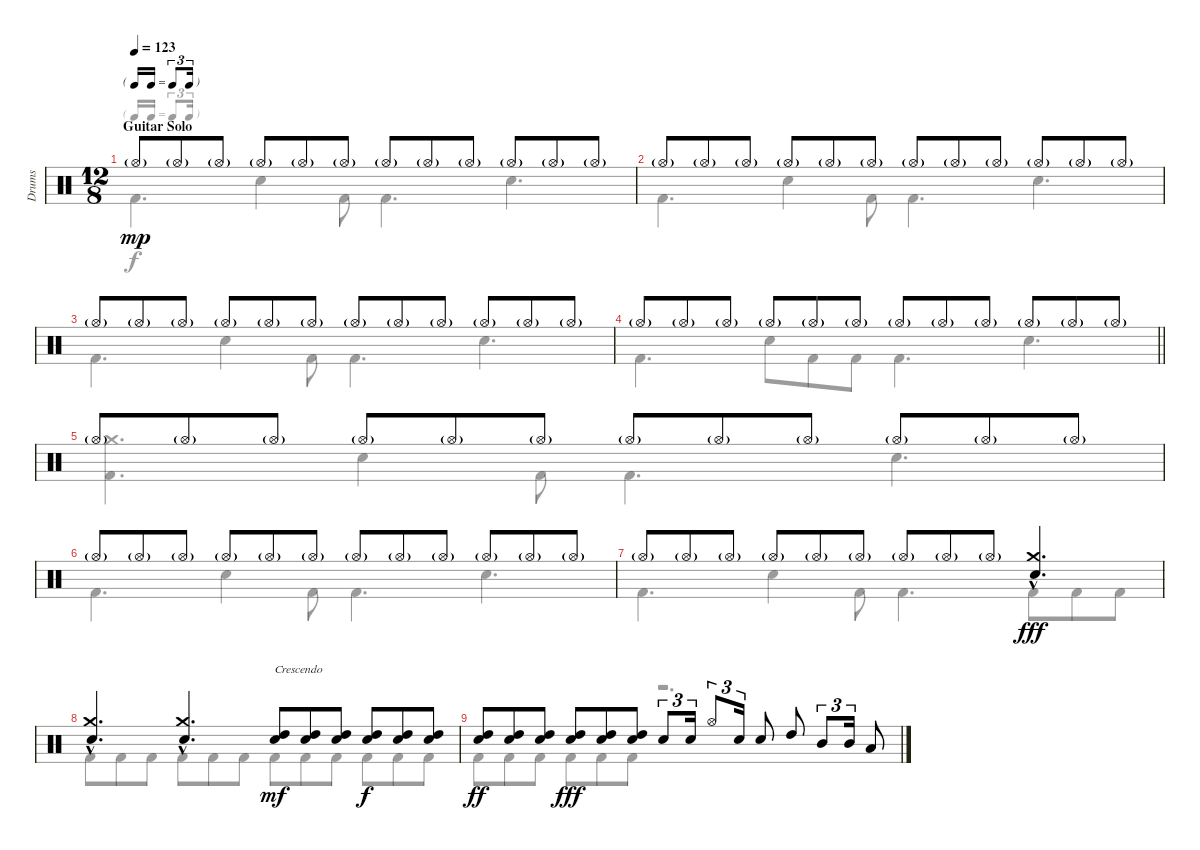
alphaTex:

\track ("Drums" "Drums") {instrument percussion}
\staff {score}
\articulation defaults
\voice
\ts (12 8)
\tf triplet16th
\section ("" "Guitar Solo")
\tempo 123
\clef neutral
\ks c "Hi-Hat (open)"{g}.8{dy mp} "Hi-Hat (open)"{g}.8 "Hi-Hat (open)"{g}.8 "Hi-Hat (open)"{g}.8 "Hi-Hat (open)"{g}.8 "Hi-Hat (open)"{g}.8 "Hi-Hat (open)"{g}.8 "Hi-Hat (open)"{g}.8 "Hi-Hat (open)"{g}.8 "Hi-Hat (open)"{g}.8 "Hi-Hat (open)"{g}.8 "Hi-Hat (open)"{g}.8
|
"Hi-Hat (open)"{g}.8 "Hi-Hat (open)"{g}.8 "Hi-Hat (open)"{g}.8 "Hi-Hat (open)"{g}.8 "Hi-Hat (open)"{g}.8 "Hi-Hat (open)"{g}.8 "Hi-Hat (open)"{g}.8 "Hi-Hat (open)"{g}.8 "Hi-Hat (open)"{g}.8 "Hi-Hat (open)"{g}.8 "Hi-Hat (open)"{g}.8 "Hi-Hat (open)"{g}.8 |
"Hi-Hat (open)"{g}.8 "Hi-Hat (open)"{g}.8 "Hi-Hat (open)"{g}.8 "Hi-Hat (open)"{g}.8 "Hi-Hat (open)"{g}.8 "Hi-Hat (open)"{g}.8 "Hi-Hat (open)"{g}.8 "Hi-Hat (open)"{g}.8 "Hi-Hat (open)"{g}.8 "Hi-Hat (open)"{g}.8 "Hi-Hat (open)"{g}.8 "Hi-Hat (open)"{g}.8 |
\barLineRight lightlight "Hi-Hat (open)"{g}.8 "Hi-Hat (open)"{g}.8 "Hi-Hat (open)"{g}.8 "Hi-Hat (open)"{g}.8 "Hi-Hat (open)"{g}.8 "Hi-Hat (open)"{g}.8 "Hi-Hat (open)"{g}.8 "Hi-Hat (open)"{g}.8 "Hi-Hat (open)"{g}.8 "Hi-Hat (open)"{g}.8 "Hi-Hat (open)"{g}.8 "Hi-Hat (open)"{g}.8
|
"Hi-Hat (open)"{g}.8 "Hi-Hat (open)"{g}.8 "Hi-Hat (open)"{g}.8 "Hi-Hat (open)"{g}.8 "Hi-Hat (open)"{g}.8 "Hi-Hat (open)"{g}.8 "Hi-Hat (open)"{g}.8 "Hi-Hat (open)"{g}.8 "Hi-Hat (open)"{g}.8 "Hi-Hat (open)"{g}.8 "Hi-Hat (open)"{g}.8 "Hi-Hat (open)"{g}.8 |
"Hi-Hat (open)"{g}.8 "Hi-Hat (open)"{g}.8 "Hi-Hat (open)"{g}.8 "Hi-Hat (open)"{g}.8 "Hi-Hat (open)"{g}.8 "Hi-Hat (open)"{g}.8 "Hi-Hat (open)"{g}.8 "Hi-Hat (open)"{g}.8 "Hi-Hat (open)"{g}.8 "Hi-Hat (open)"{g}.8 "Hi-Hat (open)"{g}.8 "Hi-Hat (open)"{g}.8 |
"Hi-Hat (open)"{g}.8 "Hi-Hat (open)"{g}.8 "Hi-Hat (open)"{g}.8 "Hi-Hat (open)"{g}.8 "Hi-Hat (open)"{g}.8 "Hi-Hat (open)"{g}.8 "Hi-Hat (open)"{g}.8 "Hi-Hat (open)"{g}.8 "Hi-Hat (open)"{g}.8 ("Crash medium (hit)"{hac} "Snare (hit) 2"{hac}).4{d dy fff} |
("Crash medium (hit)"{hac} "Snare (hit) 2"{hac}).4{d} ("Crash medium (hit)"{hac} "Snare (hit) 2"{hac}).4{d} ("High Tom (hit)" "Snare (hit) 2").8{txt "Crescendo" dy mf} ("High Tom (hit)" "Snare (hit) 2").8 ("High Tom (hit)" "Snare (hit) 2").8 ("High Tom (hit)" "Snare (hit) 2").8{dy f} ("High Tom (hit)" "Snare (hit) 2").8 ("High Tom (hit)" "Snare (hit) 2").8 |
("High Tom (hit)" "Snare (hit) 2").8{dy ff} ("High Tom (hit)" "Snare (hit) 2").8 ("High Tom (hit)" "Snare (hit) 2").8 ("High Tom (hit)" "Snare (hit) 2").8{dy fff} ("High Tom (hit)" "Snare (hit) 2").8 ("High Tom (hit)" "Snare (hit) 2").8 "Snare (hit) 2".8{tu (3 2)} "Snare (hit) 2".16{tu (3 2)} "Hi-Hat (open)".8{tu (3 2)} "Snare (hit) 2".16{tu (3 2)} "Snare (hit) 2".8 "High Tom (hit)".8 "Mid Tom (hit)".8{tu (3 2)} "Mid Tom (hit)".16{tu (3 2)} "Low Tom (hit)".8
\voice
\clef neutral
\ottava regular
\simile none
\ks c "Kick (hit) 2".4{d dy f} "Snare (hit) 2".4 "Kick (hit) 2".8 "Kick (hit) 2".4{d} "Snare (hit) 2".4{d}
|
"Kick (hit) 2".4{d} "Snare (hit) 2".4 "Kick (hit) 2".8 "Kick (hit) 2".4{d} "Snare (hit) 2".4{d} |
"Kick (hit) 2".4{d} "Snare (hit) 2".4 "Kick (hit) 2".8 "Kick (hit) 2".4{d} "Snare (hit) 2".4{d} |
\barLineRight lightlight "Kick (hit) 2".4{d} "Snare (hit) 2".8 "Kick (hit) 2".8 "Kick (hit) 2".8 "Kick (hit) 2".4{d} "Snare (hit) 2".4{d}
|
("Crash medium (hit)" "Kick (hit) 2").4{d} "Snare (hit) 2".4 "Kick (hit) 2".8 "Kick (hit) 2".4{d} "Snare (hit) 2".4{d} |
"Kick (hit) 2".4{d} "Snare (hit) 2".4 "Kick (hit) 2".8 "Kick (hit) 2".4{d} "Snare (hit) 2".4{d} |
"Kick (hit) 2".4{d} "Snare (hit) 2".4 "Kick (hit) 2".8 "Kick (hit) 2".4{d} "Kick (hit) 2".8 "Kick (hit) 2".8 "Kick (hit) 2".8 |
"Kick (hit) 2".8 "Kick (hit) 2".8 "Kick (hit) 2".8 "Kick (hit) 2".8 "Kick (hit) 2".8 "Kick (hit) 2".8 "Kick (hit) 2".8 "Kick (hit) 2".8 "Kick (hit) 2".8 "Kick (hit) 2".8 "Kick (hit) 2".8 "Kick (hit) 2".8 |
"Kick (hit) 2".8 "Kick (hit) 2".8 "Kick (hit) 2".8 "Kick (hit) 2".8 "Kick (hit) 2".8 "Kick (hit) 2".8 r.2{d}
